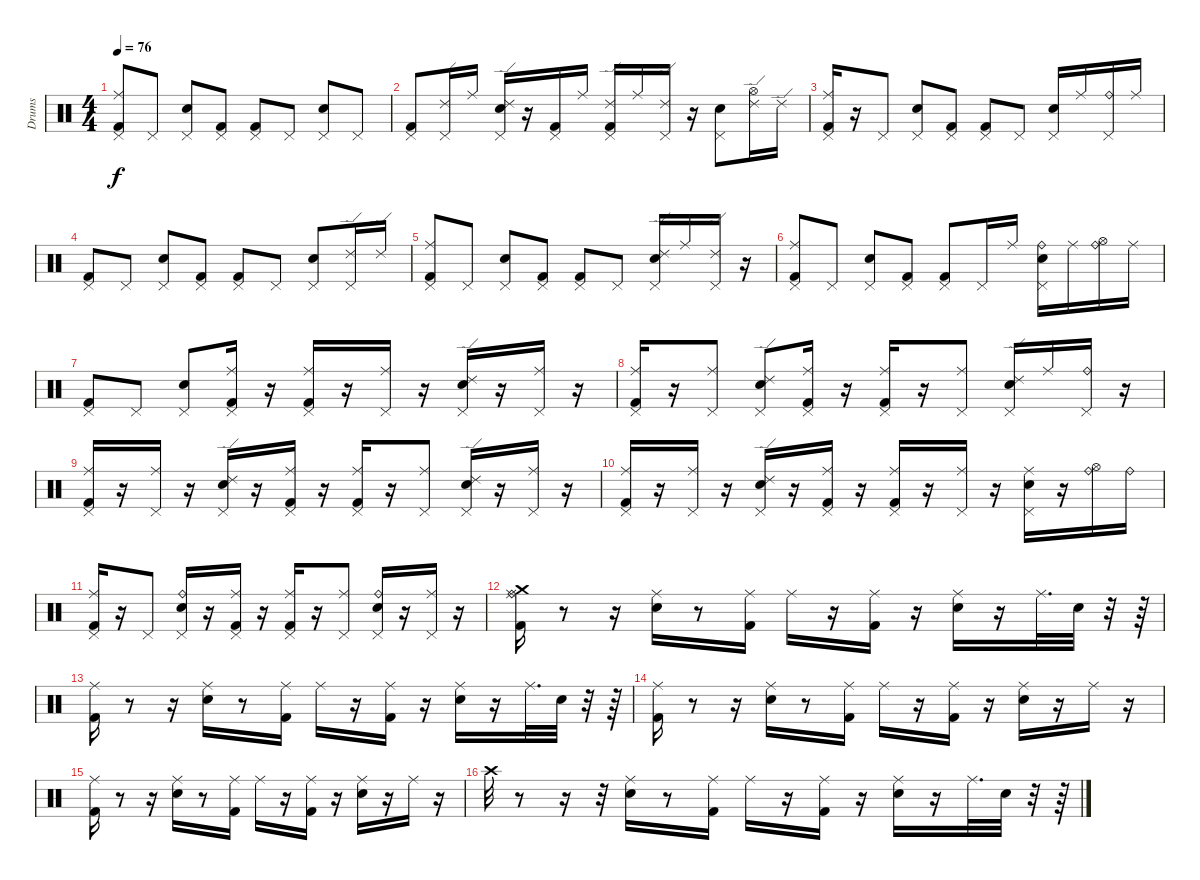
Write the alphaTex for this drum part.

\track ("Drums" "Drums") {instrument percussion}
\staff {score}
\articulation defaults
\ts (4 4)
\tempo 76
\clef neutral
\ks c
("Pedal Hi-Hat (hit)" "Kick (hit) 2" "Ride (middle)").8{dy f} "Pedal Hi-Hat (hit)".8 ("Pedal Hi-Hat (hit)" "Electric Snare (hit)").8 ("Kick (hit) 2" "Pedal Hi-Hat (hit)").8 ("Kick (hit) 2" "Pedal Hi-Hat (hit)").8 "Pedal Hi-Hat (hit)".8 ("Electric Snare (hit)" "Pedal Hi-Hat (hit)").8 "Pedal Hi-Hat (hit)".8 |
("Kick (hit) 2" "Pedal Hi-Hat (hit)").8 ("Pedal Hi-Hat (hit)" "Ride (edge) 2").16 "Ride (middle)".16 ("Electric Snare (hit)" "Pedal Hi-Hat (hit)" "Ride (edge) 2").16 r.16 ("Kick (hit) 2" "Pedal Hi-Hat (hit)").16 "Ride (middle)".16 ("Ride (edge) 2" "Pedal Hi-Hat (hit)" "Kick (hit) 2").16 "Ride (middle)".16 ("Ride (edge) 2" "Pedal Hi-Hat (hit)").16 r.16 ("Pedal Hi-Hat (hit)" "Electric Snare (hit)").8 ("Ride (edge) 2" "Hi-Hat (open)").16 "Ride (edge) 2".16 |
("Ride (middle)" "Kick (hit) 2" "Pedal Hi-Hat (hit)").16 r.16 "Pedal Hi-Hat (hit)".8 ("Pedal Hi-Hat (hit)" "Electric Snare (hit)").8 ("Kick (hit) 2" "Pedal Hi-Hat (hit)").8 ("Kick (hit) 2" "Pedal Hi-Hat (hit)").8 "Pedal Hi-Hat (hit)".8 ("Pedal Hi-Hat (hit)" "Electric Snare (hit)").16 "Ride (middle)".16 ("Pedal Hi-Hat (hit)" "Ride (bell)").16 "Ride (middle)".16 |
("Pedal Hi-Hat (hit)" "Kick (hit) 2").8 "Pedal Hi-Hat (hit)".8 ("Electric Snare (hit)" "Pedal Hi-Hat (hit)").8 ("Pedal Hi-Hat (hit)" "Kick (hit) 2").8 ("Kick (hit) 2" "Pedal Hi-Hat (hit)").8 "Pedal Hi-Hat (hit)".8 ("Pedal Hi-Hat (hit)" "Electric Snare (hit)").8 ("Pedal Hi-Hat (hit)" "Ride (edge) 2").16 "Ride (edge) 2".16 |
("Pedal Hi-Hat (hit)" "Kick (hit) 2" "Ride (middle)").8 "Pedal Hi-Hat (hit)".8 ("Pedal Hi-Hat (hit)" "Electric Snare (hit)").8 ("Kick (hit) 2" "Pedal Hi-Hat (hit)").8 ("Pedal Hi-Hat (hit)" "Kick (hit) 2").8 "Pedal Hi-Hat (hit)".8 ("Electric Snare (hit)" "Ride (edge) 2" "Pedal Hi-Hat (hit)").16 "Ride (middle)".16 ("Pedal Hi-Hat (hit)" "Ride (edge) 2").16 r.16 |
("Kick (hit) 2" "Ride (middle)" "Pedal Hi-Hat (hit)").8 "Pedal Hi-Hat (hit)".8 ("Electric Snare (hit)" "Pedal Hi-Hat (hit)").8 ("Pedal Hi-Hat (hit)" "Kick (hit) 2").8 ("Kick (hit) 2" "Pedal Hi-Hat (hit)").8 "Pedal Hi-Hat (hit)".16 "Ride (middle)".16 ("Pedal Hi-Hat (hit)" "Electric Snare (hit)" "Ride (bell)").16 "Ride (middle)".16 ("Hi-Hat (open)" "Ride (bell)").16 "Ride (middle)".16 |
("Pedal Hi-Hat (hit)" "Kick (hit) 2").8 "Pedal Hi-Hat (hit)".8 ("Electric Snare (hit)" "Pedal Hi-Hat (hit)").8 ("Kick (hit) 2" "Ride (middle)" "Pedal Hi-Hat (hit)").16 r.16 ("Kick (hit) 2" "Pedal Hi-Hat (hit)" "Ride (middle)").16 r.16 ("Pedal Hi-Hat (hit)" "Ride (middle)").16 r.16 ("Pedal Hi-Hat (hit)" "Ride (edge) 2" "Electric Snare (hit)").16 r.16 ("Ride (middle)" "Pedal Hi-Hat (hit)").16 r.16 |
("Pedal Hi-Hat (hit)" "Ride (middle)" "Kick (hit) 2").16 r.16 ("Ride (middle)" "Pedal Hi-Hat (hit)").8 ("Pedal Hi-Hat (hit)" "Ride (edge) 2" "Electric Snare (hit)").8 ("Kick (hit) 2" "Pedal Hi-Hat (hit)" "Ride (middle)").16 r.16 ("Kick (hit) 2" "Ride (middle)" "Pedal Hi-Hat (hit)").16 r.16 ("Pedal Hi-Hat (hit)" "Ride (middle)").8 ("Electric Snare (hit)" "Ride (edge) 2" "Pedal Hi-Hat (hit)").16 "Ride (middle)".16 ("Ride (bell)" "Pedal Hi-Hat (hit)").16 r.16 |
("Ride (middle)" "Pedal Hi-Hat (hit)" "Kick (hit) 2").16 r.16 ("Pedal Hi-Hat (hit)" "Ride (middle)").16 r.16 ("Ride (edge) 2" "Pedal Hi-Hat (hit)" "Electric Snare (hit)").16 r.16 ("Ride (middle)" "Kick (hit) 2" "Pedal Hi-Hat (hit)").16 r.16 ("Pedal Hi-Hat (hit)" "Ride (middle)" "Kick (hit) 2").16 r.16 ("Ride (middle)" "Pedal Hi-Hat (hit)").8 ("Pedal Hi-Hat (hit)" "Ride (edge) 2" "Electric Snare (hit)").16 r.16 ("Pedal Hi-Hat (hit)" "Ride (middle)").16 r.16 |
("Ride (middle)" "Pedal Hi-Hat (hit)" "Kick (hit) 2").16 r.16 ("Ride (middle)" "Pedal Hi-Hat (hit)").16 r.16 ("Pedal Hi-Hat (hit)" "Electric Snare (hit)" "Ride (edge) 2").16 r.16 ("Ride (middle)" "Pedal Hi-Hat (hit)" "Kick (hit) 2").16 r.16 ("Pedal Hi-Hat (hit)" "Kick (hit) 2" "Ride (middle)").16 r.16 ("Ride (middle)" "Pedal Hi-Hat (hit)").16 r.16 ("Ride (middle)" "Electric Snare (hit)" "Pedal Hi-Hat (hit)").16 r.16 ("Hi-Hat (open)" "Ride (bell)").16 "Ride (bell)".16 |
("Ride (middle)" "Pedal Hi-Hat (hit)" "Kick (hit) 2").16 r.16 "Pedal Hi-Hat (hit)".8 ("Pedal Hi-Hat (hit)" "Ride (bell)" "Electric Snare (hit)").16 r.16 ("Kick (hit) 2" "Ride (middle)" "Pedal Hi-Hat (hit)").16 r.16 ("Ride (middle)" "Kick (hit) 2" "Pedal Hi-Hat (hit)").16 r.16 ("Ride (middle)" "Pedal Hi-Hat (hit)").8 ("Pedal Hi-Hat (hit)" "Electric Snare (hit)" "Ride (bell)").16 r.16 ("Pedal Hi-Hat (hit)" "Ride (middle)").16 r.16 |
("Ride (bell)" "Kick (hit) 2" "Crash medium (hit)" "Ride (middle)").16 r.8 r.16 ("Ride (middle)" "Electric Snare (hit)").16 r.8 ("Ride (middle)" "Kick (hit) 2").16 "Ride (middle)".16 r.16 ("Kick (hit) 2" "Ride (middle)").16 r.16 ("Electric Snare (hit)" "Ride (middle)").16 r.16 "Ride (middle)".32{d} "Electric Snare (hit)".32 r.32 r.64 |
("Kick (hit) 2" "Ride (middle)").16 r.8 r.16 ("Ride (middle)" "Electric Snare (hit)").16 r.8 ("Kick (hit) 2" "Ride (middle)").16 "Ride (middle)".16 r.16 ("Kick (hit) 2" "Ride (middle)").16 r.16 ("Ride (middle)" "Electric Snare (hit)").16 r.16 "Ride (middle)".32{d} "Electric Snare (hit)".32 r.32 r.64 |
("Ride (middle)" "Kick (hit) 2").16 r.8 r.16 ("Electric Snare (hit)" "Ride (middle)").16 r.8 ("Ride (middle)" "Kick (hit) 2").16 "Ride (middle)".16 r.16 ("Ride (middle)" "Kick (hit) 2").16 r.16 ("Electric Snare (hit)" "Ride (middle)").16 r.16 "Ride (middle)".16 r.16 |
("Kick (hit) 2" "Ride (middle)").16 r.8 r.16 ("Electric Snare (hit)" "Ride (middle)").16 r.8 ("Ride (middle)" "Kick (hit) 2").16 "Ride (middle)".16 r.16 ("Ride (middle)" "Kick (hit) 2").16 r.16 ("Ride (middle)" "Electric Snare (hit)").16 r.16 "Ride (middle)".16 r.16 |
"Crash high (hit)".32 r.8 r.16 r.32 ("Electric Snare (hit)" "Ride (middle)").16 r.8 ("Kick (hit) 2" "Ride (middle)").16 "Ride (middle)".16 r.16 ("Kick (hit) 2" "Ride (middle)").16 r.16 ("Ride (middle)" "Electric Snare (hit)").16 r.16 "Ride (middle)".32{d} "Electric Snare (hit)".32 r.32 r.64
